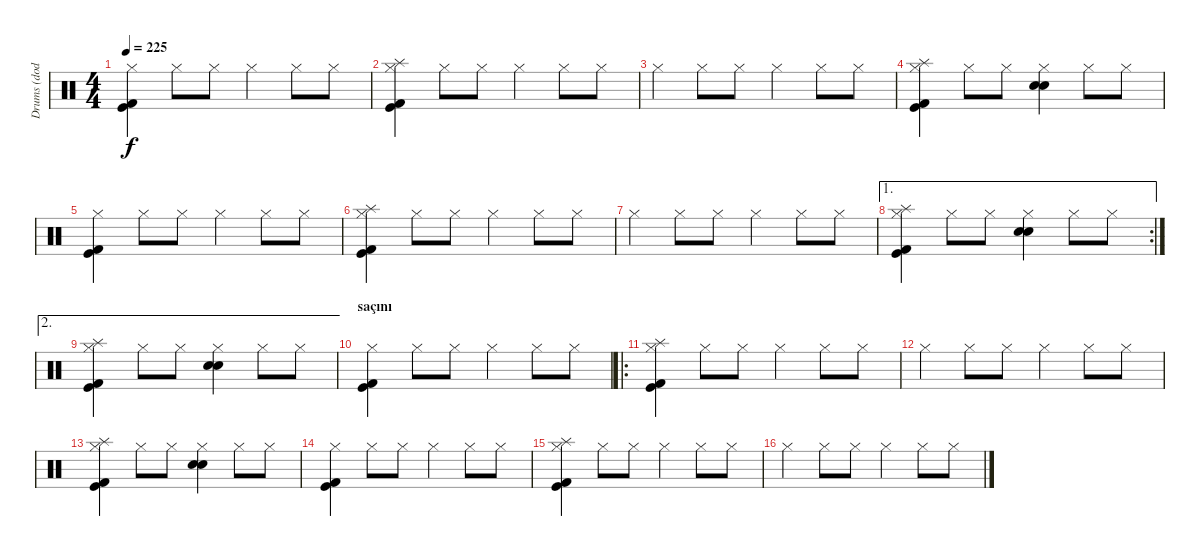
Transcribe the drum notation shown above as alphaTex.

\track ("Drums (dodo)" "Drums (dod") {instrument percussion}
\staff {score}
\articulation defaults
\ts (4 4)
\tempo 225
\clef neutral
\ks c
("Hi-Hat (closed)" "Kick (hit)" "Kick (hit) 2").4{dy f} "Hi-Hat (closed)".8 "Hi-Hat (closed)".8 "Hi-Hat (closed)".4 "Hi-Hat (closed)".8 "Hi-Hat (closed)".8 |
("Hi-Hat (closed)" "Splash (hit)" "Kick (hit)" "Kick (hit) 2").4 "Hi-Hat (closed)".8 "Hi-Hat (closed)".8 "Hi-Hat (closed)".4 "Hi-Hat (closed)".8 "Hi-Hat (closed)".8 |
"Hi-Hat (closed)".4 "Hi-Hat (closed)".8 "Hi-Hat (closed)".8 "Hi-Hat (closed)".4 "Hi-Hat (closed)".8 "Hi-Hat (closed)".8 |
("Hi-Hat (closed)" "Splash (hit)" "Kick (hit)" "Kick (hit) 2").4 "Hi-Hat (closed)".8 "Hi-Hat (closed)".8 ("Hi-Hat (closed)" "Electric Snare (hit)" "Snare (hit) 2").4 "Hi-Hat (closed)".8 "Hi-Hat (closed)".8 |
("Hi-Hat (closed)" "Kick (hit)" "Kick (hit) 2").4 "Hi-Hat (closed)".8 "Hi-Hat (closed)".8 "Hi-Hat (closed)".4 "Hi-Hat (closed)".8 "Hi-Hat (closed)".8 |
("Hi-Hat (closed)" "Splash (hit)" "Kick (hit)" "Kick (hit) 2").4 "Hi-Hat (closed)".8 "Hi-Hat (closed)".8 "Hi-Hat (closed)".4 "Hi-Hat (closed)".8 "Hi-Hat (closed)".8 |
"Hi-Hat (closed)".4 "Hi-Hat (closed)".8 "Hi-Hat (closed)".8 "Hi-Hat (closed)".4 "Hi-Hat (closed)".8 "Hi-Hat (closed)".8 |
\ae 1
\rc 2
("Hi-Hat (closed)" "Splash (hit)" "Kick (hit)" "Kick (hit) 2").4 "Hi-Hat (closed)".8 "Hi-Hat (closed)".8 ("Hi-Hat (closed)" "Electric Snare (hit)" "Snare (hit) 2").4 "Hi-Hat (closed)".8 "Hi-Hat (closed)".8 |
\ae 2
("Hi-Hat (closed)" "Splash (hit)" "Kick (hit)" "Kick (hit) 2").4 "Hi-Hat (closed)".8 "Hi-Hat (closed)".8 ("Hi-Hat (closed)" "Electric Snare (hit)" "Snare (hit) 2").4 "Hi-Hat (closed)".8 "Hi-Hat (closed)".8 |
\section ("" "saçını")
("Hi-Hat (closed)" "Kick (hit)" "Kick (hit) 2").4 "Hi-Hat (closed)".8 "Hi-Hat (closed)".8 "Hi-Hat (closed)".4 "Hi-Hat (closed)".8 "Hi-Hat (closed)".8 |
\ro
("Hi-Hat (closed)" "Splash (hit)" "Kick (hit)" "Kick (hit) 2").4 "Hi-Hat (closed)".8 "Hi-Hat (closed)".8 "Hi-Hat (closed)".4 "Hi-Hat (closed)".8 "Hi-Hat (closed)".8 |
"Hi-Hat (closed)".4 "Hi-Hat (closed)".8 "Hi-Hat (closed)".8 "Hi-Hat (closed)".4 "Hi-Hat (closed)".8 "Hi-Hat (closed)".8 |
("Hi-Hat (closed)" "Splash (hit)" "Kick (hit)" "Kick (hit) 2").4 "Hi-Hat (closed)".8 "Hi-Hat (closed)".8 ("Hi-Hat (closed)" "Electric Snare (hit)" "Snare (hit) 2").4 "Hi-Hat (closed)".8 "Hi-Hat (closed)".8 |
("Hi-Hat (closed)" "Kick (hit)" "Kick (hit) 2").4 "Hi-Hat (closed)".8 "Hi-Hat (closed)".8 "Hi-Hat (closed)".4 "Hi-Hat (closed)".8 "Hi-Hat (closed)".8 |
("Hi-Hat (closed)" "Splash (hit)" "Kick (hit)" "Kick (hit) 2").4 "Hi-Hat (closed)".8 "Hi-Hat (closed)".8 "Hi-Hat (closed)".4 "Hi-Hat (closed)".8 "Hi-Hat (closed)".8 |
"Hi-Hat (closed)".4 "Hi-Hat (closed)".8 "Hi-Hat (closed)".8 "Hi-Hat (closed)".4 "Hi-Hat (closed)".8 "Hi-Hat (closed)".8
